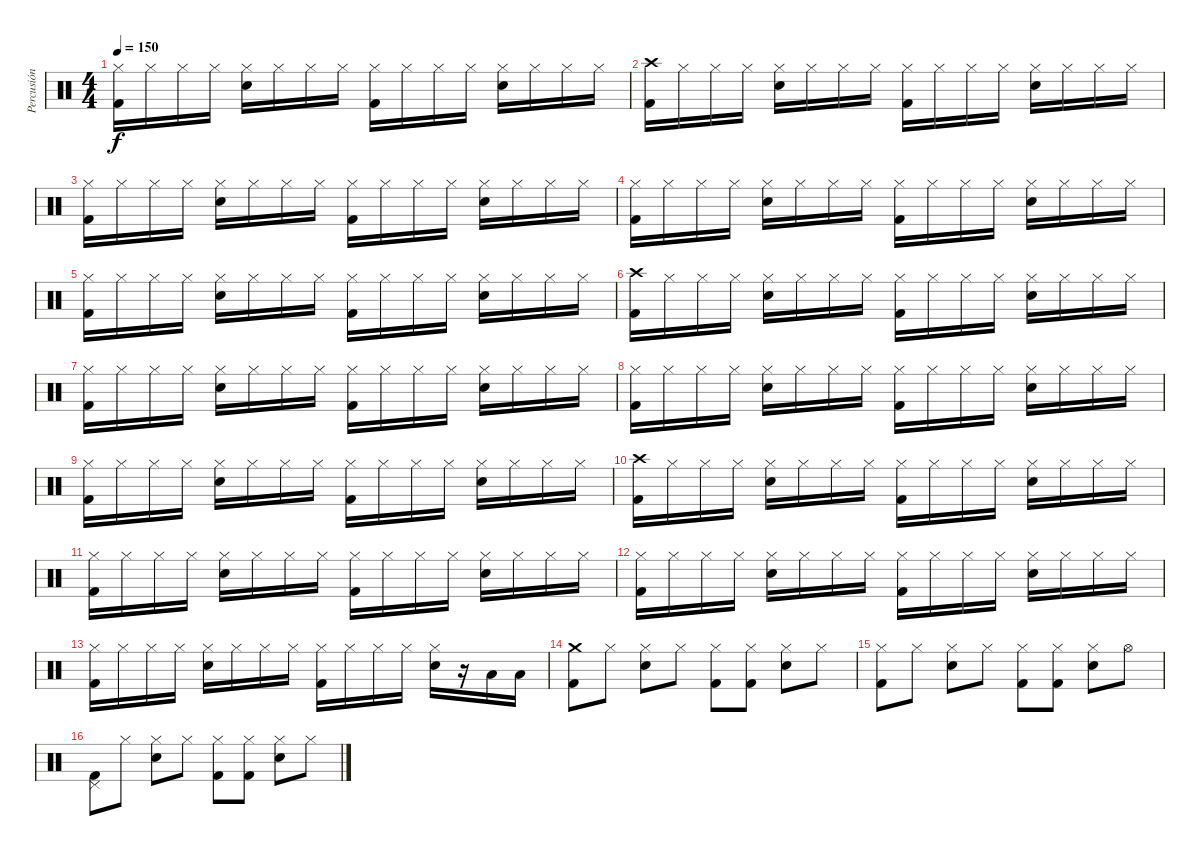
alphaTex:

\track ("Percusión" "Percusión") {instrument percussion}
\staff {score}
\articulation defaults
\ts (4 4)
\tempo 150
\clef neutral
\ks c
("Hi-Hat (closed)" "Kick (hit) 2").16{dy f} "Hi-Hat (closed)".16 "Hi-Hat (closed)".16 "Hi-Hat (closed)".16 ("Hi-Hat (closed)" "Electric Snare (hit)").16 "Hi-Hat (closed)".16 "Hi-Hat (closed)".16 "Hi-Hat (closed)".16 ("Hi-Hat (closed)" "Kick (hit) 2").16 "Hi-Hat (closed)".16 "Hi-Hat (closed)".16 "Hi-Hat (closed)".16 ("Hi-Hat (closed)" "Electric Snare (hit)").16 "Hi-Hat (closed)".16 "Hi-Hat (closed)".16 "Hi-Hat (closed)".16 |
("Crash high (hit)" "Kick (hit) 2").16 "Hi-Hat (closed)".16 "Hi-Hat (closed)".16 "Hi-Hat (closed)".16 ("Hi-Hat (closed)" "Electric Snare (hit)").16 "Hi-Hat (closed)".16 "Hi-Hat (closed)".16 "Hi-Hat (closed)".16 ("Hi-Hat (closed)" "Kick (hit) 2").16 "Hi-Hat (closed)".16 "Hi-Hat (closed)".16 "Hi-Hat (closed)".16 ("Hi-Hat (closed)" "Electric Snare (hit)").16 "Hi-Hat (closed)".16 "Hi-Hat (closed)".16 "Hi-Hat (closed)".16 |
("Hi-Hat (closed)" "Kick (hit) 2").16 "Hi-Hat (closed)".16 "Hi-Hat (closed)".16 "Hi-Hat (closed)".16 ("Hi-Hat (closed)" "Electric Snare (hit)").16 "Hi-Hat (closed)".16 "Hi-Hat (closed)".16 "Hi-Hat (closed)".16 ("Hi-Hat (closed)" "Kick (hit) 2").16 "Hi-Hat (closed)".16 "Hi-Hat (closed)".16 "Hi-Hat (closed)".16 ("Hi-Hat (closed)" "Electric Snare (hit)").16 "Hi-Hat (closed)".16 "Hi-Hat (closed)".16 "Hi-Hat (closed)".16 |
("Hi-Hat (closed)" "Kick (hit) 2").16 "Hi-Hat (closed)".16 "Hi-Hat (closed)".16 "Hi-Hat (closed)".16 ("Hi-Hat (closed)" "Electric Snare (hit)").16 "Hi-Hat (closed)".16 "Hi-Hat (closed)".16 "Hi-Hat (closed)".16 ("Hi-Hat (closed)" "Kick (hit) 2").16 "Hi-Hat (closed)".16 "Hi-Hat (closed)".16 "Hi-Hat (closed)".16 ("Hi-Hat (closed)" "Electric Snare (hit)").16 "Hi-Hat (closed)".16 "Hi-Hat (closed)".16 "Hi-Hat (closed)".16 |
("Hi-Hat (closed)" "Kick (hit) 2").16 "Hi-Hat (closed)".16 "Hi-Hat (closed)".16 "Hi-Hat (closed)".16 ("Hi-Hat (closed)" "Electric Snare (hit)").16 "Hi-Hat (closed)".16 "Hi-Hat (closed)".16 "Hi-Hat (closed)".16 ("Hi-Hat (closed)" "Kick (hit) 2").16 "Hi-Hat (closed)".16 "Hi-Hat (closed)".16 "Hi-Hat (closed)".16 ("Hi-Hat (closed)" "Electric Snare (hit)").16 "Hi-Hat (closed)".16 "Hi-Hat (closed)".16 "Hi-Hat (closed)".16 |
("Crash high (hit)" "Kick (hit) 2").16 "Hi-Hat (closed)".16 "Hi-Hat (closed)".16 "Hi-Hat (closed)".16 ("Hi-Hat (closed)" "Electric Snare (hit)").16 "Hi-Hat (closed)".16 "Hi-Hat (closed)".16 "Hi-Hat (closed)".16 ("Hi-Hat (closed)" "Kick (hit) 2").16 "Hi-Hat (closed)".16 "Hi-Hat (closed)".16 "Hi-Hat (closed)".16 ("Hi-Hat (closed)" "Electric Snare (hit)").16 "Hi-Hat (closed)".16 "Hi-Hat (closed)".16 "Hi-Hat (closed)".16 |
("Hi-Hat (closed)" "Kick (hit) 2").16 "Hi-Hat (closed)".16 "Hi-Hat (closed)".16 "Hi-Hat (closed)".16 ("Hi-Hat (closed)" "Electric Snare (hit)").16 "Hi-Hat (closed)".16 "Hi-Hat (closed)".16 "Hi-Hat (closed)".16 ("Hi-Hat (closed)" "Kick (hit) 2").16 "Hi-Hat (closed)".16 "Hi-Hat (closed)".16 "Hi-Hat (closed)".16 ("Hi-Hat (closed)" "Electric Snare (hit)").16 "Hi-Hat (closed)".16 "Hi-Hat (closed)".16 "Hi-Hat (closed)".16 |
("Hi-Hat (closed)" "Kick (hit) 2").16 "Hi-Hat (closed)".16 "Hi-Hat (closed)".16 "Hi-Hat (closed)".16 ("Hi-Hat (closed)" "Electric Snare (hit)").16 "Hi-Hat (closed)".16 "Hi-Hat (closed)".16 "Hi-Hat (closed)".16 ("Hi-Hat (closed)" "Kick (hit) 2").16 "Hi-Hat (closed)".16 "Hi-Hat (closed)".16 "Hi-Hat (closed)".16 ("Hi-Hat (closed)" "Electric Snare (hit)").16 "Hi-Hat (closed)".16 "Hi-Hat (closed)".16 "Hi-Hat (closed)".16 |
("Hi-Hat (closed)" "Kick (hit) 2").16 "Hi-Hat (closed)".16 "Hi-Hat (closed)".16 "Hi-Hat (closed)".16 ("Hi-Hat (closed)" "Electric Snare (hit)").16 "Hi-Hat (closed)".16 "Hi-Hat (closed)".16 "Hi-Hat (closed)".16 ("Hi-Hat (closed)" "Kick (hit) 2").16 "Hi-Hat (closed)".16 "Hi-Hat (closed)".16 "Hi-Hat (closed)".16 ("Hi-Hat (closed)" "Electric Snare (hit)").16 "Hi-Hat (closed)".16 "Hi-Hat (closed)".16 "Hi-Hat (closed)".16 |
("Crash high (hit)" "Kick (hit) 2").16 "Hi-Hat (closed)".16 "Hi-Hat (closed)".16 "Hi-Hat (closed)".16 ("Hi-Hat (closed)" "Electric Snare (hit)").16 "Hi-Hat (closed)".16 "Hi-Hat (closed)".16 "Hi-Hat (closed)".16 ("Hi-Hat (closed)" "Kick (hit) 2").16 "Hi-Hat (closed)".16 "Hi-Hat (closed)".16 "Hi-Hat (closed)".16 ("Hi-Hat (closed)" "Electric Snare (hit)").16 "Hi-Hat (closed)".16 "Hi-Hat (closed)".16 "Hi-Hat (closed)".16 |
("Hi-Hat (closed)" "Kick (hit) 2").16 "Hi-Hat (closed)".16 "Hi-Hat (closed)".16 "Hi-Hat (closed)".16 ("Hi-Hat (closed)" "Electric Snare (hit)").16 "Hi-Hat (closed)".16 "Hi-Hat (closed)".16 "Hi-Hat (closed)".16 ("Hi-Hat (closed)" "Kick (hit) 2").16 "Hi-Hat (closed)".16 "Hi-Hat (closed)".16 "Hi-Hat (closed)".16 ("Hi-Hat (closed)" "Electric Snare (hit)").16 "Hi-Hat (closed)".16 "Hi-Hat (closed)".16 "Hi-Hat (closed)".16 |
("Hi-Hat (closed)" "Kick (hit) 2").16 "Hi-Hat (closed)".16 "Hi-Hat (closed)".16 "Hi-Hat (closed)".16 ("Hi-Hat (closed)" "Electric Snare (hit)").16 "Hi-Hat (closed)".16 "Hi-Hat (closed)".16 "Hi-Hat (closed)".16 ("Hi-Hat (closed)" "Kick (hit) 2").16 "Hi-Hat (closed)".16 "Hi-Hat (closed)".16 "Hi-Hat (closed)".16 ("Hi-Hat (closed)" "Electric Snare (hit)").16 "Hi-Hat (closed)".16 "Hi-Hat (closed)".16 "Hi-Hat (closed)".16 |
("Hi-Hat (closed)" "Kick (hit) 2").16 "Hi-Hat (closed)".16 "Hi-Hat (closed)".16 "Hi-Hat (closed)".16 ("Hi-Hat (closed)" "Electric Snare (hit)").16 "Hi-Hat (closed)".16 "Hi-Hat (closed)".16 "Hi-Hat (closed)".16 ("Hi-Hat (closed)" "Kick (hit) 2").16 "Hi-Hat (closed)".16 "Hi-Hat (closed)".16 "Hi-Hat (closed)".16 ("Hi-Hat (closed)" "Electric Snare (hit)").16 r.16 "Low Tom (hit)".16 "Low Tom (hit)".16 |
("Crash medium (hit)" "Kick (hit) 2").8 "Hi-Hat (closed)".8 ("Hi-Hat (closed)" "Electric Snare (hit)").8 "Hi-Hat (closed)".8 ("Hi-Hat (closed)" "Kick (hit) 2").8 ("Hi-Hat (closed)" "Kick (hit) 2").8 ("Hi-Hat (closed)" "Electric Snare (hit)").8 "Hi-Hat (closed)".8 |
("Hi-Hat (closed)" "Kick (hit) 2").8 "Hi-Hat (closed)".8 ("Hi-Hat (closed)" "Electric Snare (hit)").8 "Hi-Hat (closed)".8 ("Hi-Hat (closed)" "Kick (hit) 2").8 ("Hi-Hat (closed)" "Kick (hit) 2").8 ("Hi-Hat (closed)" "Electric Snare (hit)").8 "Hi-Hat (open)".8 |
("Pedal Hi-Hat (hit)" "Kick (hit) 2").8 "Hi-Hat (closed)".8 ("Hi-Hat (closed)" "Electric Snare (hit)").8 "Hi-Hat (closed)".8 ("Hi-Hat (closed)" "Kick (hit) 2").8 ("Hi-Hat (closed)" "Kick (hit) 2").8 ("Hi-Hat (closed)" "Electric Snare (hit)").8 "Hi-Hat (closed)".8
